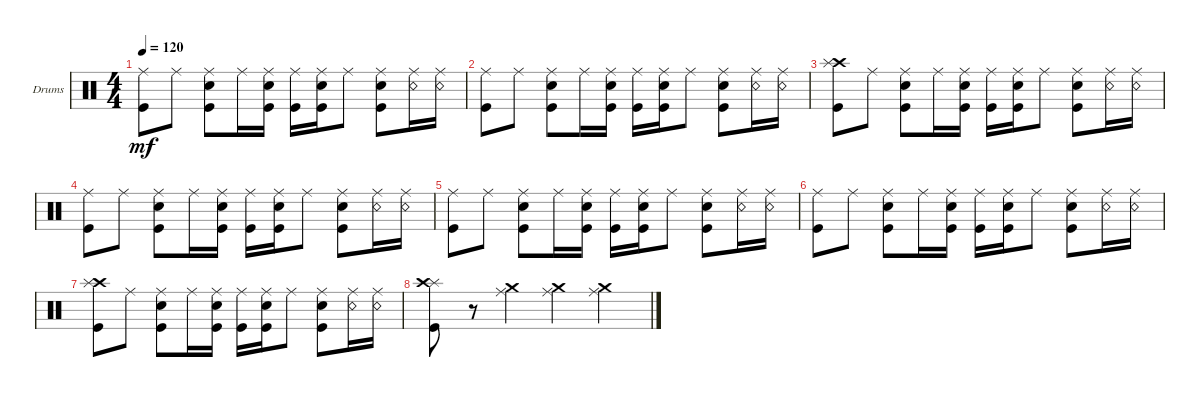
\defaultSystemsLayout 4
\bracketExtendMode groupsimilarinstruments
\firstSystemTrackNameOrientation horizontal
\otherSystemsTrackNameOrientation horizontal
\track ("Нюта" "Drums") {instrument percussion}
\staff {score}
\articulation defaults
\ts (4 4)
\tempo 120
\clef neutral
\ks c
("Kick (hit)" "Ride (middle)").8{dy mf} "Ride (middle)".8 ("Ride (middle)" "Kick (hit)" "Snare (hit) 2").8 "Ride (middle)".16 ("Ride (middle)" "Kick (hit)" "Snare (hit) 2").16 ("Ride (middle)" "Kick (hit)").16 ("Ride (middle)" "Kick (hit)" "Snare (hit) 2").16 "Ride (middle)".8 ("Snare (hit) 2" "Ride (middle)" "Kick (hit)").8 ("Snare (rim shot)" "Ride (middle)").16 ("Snare (rim shot)" "Ride (middle)").16 |
("Kick (hit)" "Ride (middle)").8 "Ride (middle)".8 ("Ride (middle)" "Kick (hit)" "Snare (hit) 2").8 "Ride (middle)".16 ("Ride (middle)" "Kick (hit)" "Snare (hit) 2").16 ("Ride (middle)" "Kick (hit)").16 ("Ride (middle)" "Kick (hit)" "Snare (hit) 2").16 "Ride (middle)".8 ("Snare (hit) 2" "Ride (middle)" "Kick (hit)").8 ("Snare (rim shot)" "Ride (middle)").16 ("Snare (rim shot)" "Ride (middle)").16 |
("Crash high (hit)" "Kick (hit)" "Splash (hit)").8 "Ride (middle)".8 ("Ride (middle)" "Kick (hit)" "Snare (hit) 2").8 "Ride (middle)".16 ("Ride (middle)" "Kick (hit)" "Snare (hit) 2").16 ("Ride (middle)" "Kick (hit)").16 ("Ride (middle)" "Kick (hit)" "Snare (hit) 2").16 "Ride (middle)".8 ("Snare (hit) 2" "Ride (middle)" "Kick (hit)").8 ("Snare (rim shot)" "Ride (middle)").16 ("Snare (rim shot)" "Ride (middle)").16 |
("Kick (hit)" "Ride (middle)").8 "Ride (middle)".8 ("Ride (middle)" "Kick (hit)" "Snare (hit) 2").8 "Ride (middle)".16 ("Ride (middle)" "Kick (hit)" "Snare (hit) 2").16 ("Ride (middle)" "Kick (hit)").16 ("Ride (middle)" "Kick (hit)" "Snare (hit) 2").16 "Ride (middle)".8 ("Snare (hit) 2" "Ride (middle)" "Kick (hit)").8 ("Snare (rim shot)" "Ride (middle)").16 ("Snare (rim shot)" "Ride (middle)").16 |
("Kick (hit)" "Ride (middle)").8 "Ride (middle)".8 ("Ride (middle)" "Kick (hit)" "Snare (hit) 2").8 "Ride (middle)".16 ("Ride (middle)" "Kick (hit)" "Snare (hit) 2").16 ("Ride (middle)" "Kick (hit)").16 ("Ride (middle)" "Kick (hit)" "Snare (hit) 2").16 "Ride (middle)".8 ("Snare (hit) 2" "Ride (middle)" "Kick (hit)").8 ("Snare (rim shot)" "Ride (middle)").16 ("Snare (rim shot)" "Ride (middle)").16 |
("Kick (hit)" "Ride (middle)").8 "Ride (middle)".8 ("Ride (middle)" "Kick (hit)" "Snare (hit) 2").8 "Ride (middle)".16 ("Ride (middle)" "Kick (hit)" "Snare (hit) 2").16 ("Ride (middle)" "Kick (hit)").16 ("Ride (middle)" "Kick (hit)" "Snare (hit) 2").16 "Ride (middle)".8 ("Snare (hit) 2" "Ride (middle)" "Kick (hit)").8 ("Snare (rim shot)" "Ride (middle)").16 ("Snare (rim shot)" "Ride (middle)").16 |
("Crash high (hit)" "Kick (hit)" "Splash (hit)").8 "Ride (middle)".8 ("Ride (middle)" "Kick (hit)" "Snare (hit) 2").8 "Ride (middle)".16 ("Ride (middle)" "Kick (hit)" "Snare (hit) 2").16 ("Ride (middle)" "Kick (hit)").16 ("Ride (middle)" "Kick (hit)" "Snare (hit) 2").16 "Ride (middle)".8 ("Snare (hit) 2" "Ride (middle)" "Kick (hit)").8 ("Snare (rim shot)" "Ride (middle)").16 ("Snare (rim shot)" "Ride (middle)").16 |
("Kick (hit)" "Splash (hit)" "Crash high (hit)").8 r.8 ("Ride (middle)" "Crash medium (hit)").4 ("Ride (middle)" "Crash medium (hit)").4 ("Ride (middle)" "Crash medium (hit)").4
